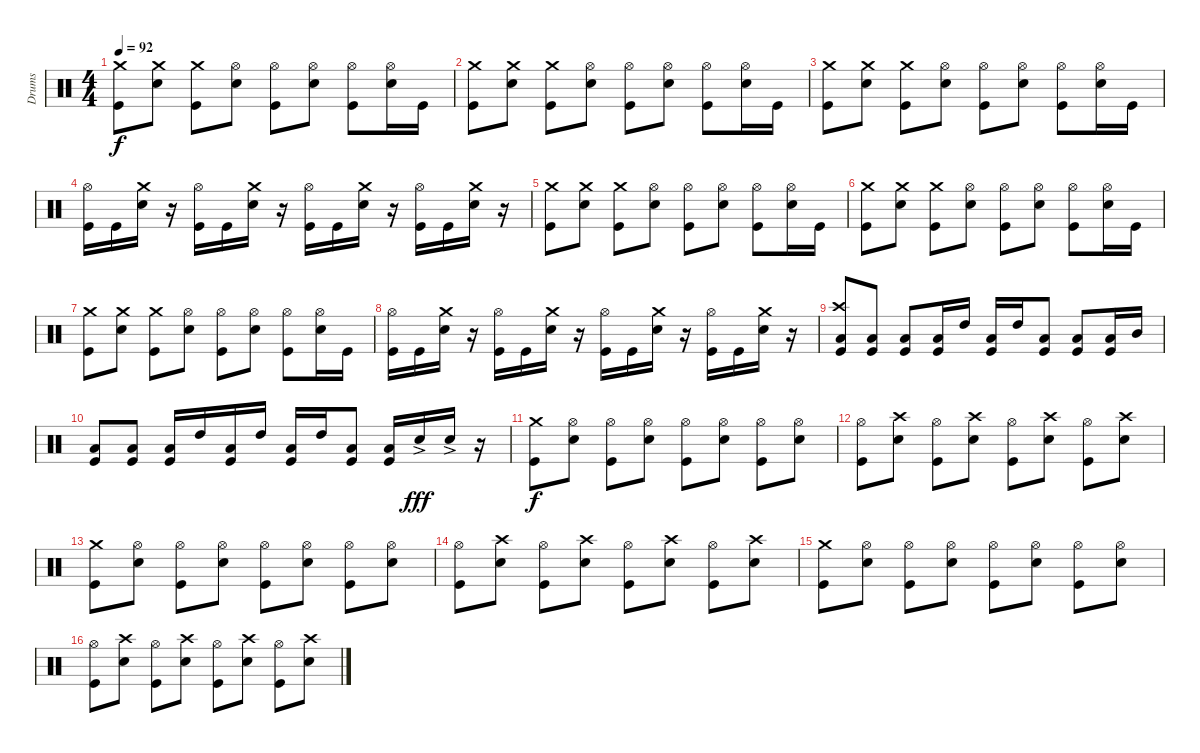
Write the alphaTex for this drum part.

\track ("Drums" "Drums") {instrument percussion}
\staff {score}
\articulation defaults
\ts (4 4)
\tempo 92
\clef neutral
\ks c
("Crash medium (hit)" "Kick (hit)").8{dy f} ("Crash medium (hit)" "Electric Snare (hit)").8 ("Crash medium (hit)" "Kick (hit)").8 ("Hi-Hat (open)" "Electric Snare (hit)").8 ("Hi-Hat (open)" "Kick (hit)").8 ("Hi-Hat (open)" "Electric Snare (hit)").8 ("Hi-Hat (open)" "Kick (hit)").8 ("Hi-Hat (open)" "Electric Snare (hit)").16 "Kick (hit)".16 |
("Crash medium (hit)" "Kick (hit)").8 ("Crash medium (hit)" "Electric Snare (hit)").8 ("Crash medium (hit)" "Kick (hit)").8 ("Hi-Hat (open)" "Electric Snare (hit)").8 ("Hi-Hat (open)" "Kick (hit)").8 ("Hi-Hat (open)" "Electric Snare (hit)").8 ("Hi-Hat (open)" "Kick (hit)").8 ("Hi-Hat (open)" "Electric Snare (hit)").16 "Kick (hit)".16 |
("Crash medium (hit)" "Kick (hit)").8 ("Crash medium (hit)" "Electric Snare (hit)").8 ("Crash medium (hit)" "Kick (hit)").8 ("Hi-Hat (open)" "Electric Snare (hit)").8 ("Hi-Hat (open)" "Kick (hit)").8 ("Hi-Hat (open)" "Electric Snare (hit)").8 ("Hi-Hat (open)" "Kick (hit)").8 ("Hi-Hat (open)" "Electric Snare (hit)").16 "Kick (hit)".16 |
("Hi-Hat (open)" "Kick (hit)").16 "Kick (hit)".16 ("Crash medium (hit)" "Electric Snare (hit)").16 r.16 ("Hi-Hat (open)" "Kick (hit)").16 "Kick (hit)".16 ("Crash medium (hit)" "Electric Snare (hit)").16 r.16 ("Hi-Hat (open)" "Kick (hit)").16 "Kick (hit)".16 ("Crash medium (hit)" "Electric Snare (hit)").16 r.16 ("Hi-Hat (open)" "Kick (hit)").16 "Kick (hit)".16 ("Crash medium (hit)" "Electric Snare (hit)").16 r.16 |
("Crash medium (hit)" "Kick (hit)").8 ("Crash medium (hit)" "Electric Snare (hit)").8 ("Crash medium (hit)" "Kick (hit)").8 ("Hi-Hat (open)" "Electric Snare (hit)").8 ("Hi-Hat (open)" "Kick (hit)").8 ("Hi-Hat (open)" "Electric Snare (hit)").8 ("Hi-Hat (open)" "Kick (hit)").8 ("Hi-Hat (open)" "Electric Snare (hit)").16 "Kick (hit)".16 |
("Crash medium (hit)" "Kick (hit)").8 ("Crash medium (hit)" "Electric Snare (hit)").8 ("Crash medium (hit)" "Kick (hit)").8 ("Hi-Hat (open)" "Electric Snare (hit)").8 ("Hi-Hat (open)" "Kick (hit)").8 ("Hi-Hat (open)" "Electric Snare (hit)").8 ("Hi-Hat (open)" "Kick (hit)").8 ("Hi-Hat (open)" "Electric Snare (hit)").16 "Kick (hit)".16 |
("Crash medium (hit)" "Kick (hit)").8 ("Crash medium (hit)" "Electric Snare (hit)").8 ("Crash medium (hit)" "Kick (hit)").8 ("Hi-Hat (open)" "Electric Snare (hit)").8 ("Hi-Hat (open)" "Kick (hit)").8 ("Hi-Hat (open)" "Electric Snare (hit)").8 ("Hi-Hat (open)" "Kick (hit)").8 ("Hi-Hat (open)" "Electric Snare (hit)").16 "Kick (hit)".16 |
("Hi-Hat (open)" "Kick (hit)").16 "Kick (hit)".16 ("Crash medium (hit)" "Electric Snare (hit)").16 r.16 ("Hi-Hat (open)" "Kick (hit)").16 "Kick (hit)".16 ("Crash medium (hit)" "Electric Snare (hit)").16 r.16 ("Hi-Hat (open)" "Kick (hit)").16 "Kick (hit)".16 ("Crash medium (hit)" "Electric Snare (hit)").16 r.16 ("Hi-Hat (open)" "Kick (hit)").16 "Kick (hit)".16 ("Crash medium (hit)" "Electric Snare (hit)").16 r.16 |
("Crash high (hit)" "Low Tom (hit)" "Kick (hit)").8 ("Low Tom (hit)" "Kick (hit)").8 ("Low Tom (hit)" "Kick (hit)").8 ("Low Tom (hit)" "Kick (hit)").16 "High Tom (hit)".16 ("Low Tom (hit)" "Kick (hit)").16 "High Tom (hit)".16 ("Low Tom (hit)" "Kick (hit)").8 ("Low Tom (hit)" "Kick (hit)").8 ("Low Tom (hit)" "Kick (hit)").16 "Mid Tom (hit)".16 |
("Low Tom (hit)" "Kick (hit)").8 ("Low Tom (hit)" "Kick (hit)").8 ("Low Tom (hit)" "Kick (hit)").16 "High Tom (hit)".16 ("Low Tom (hit)" "Kick (hit)").16 "High Tom (hit)".16 ("Low Tom (hit)" "Kick (hit)").16 "High Tom (hit)".16 ("Low Tom (hit)" "Kick (hit)").8 ("Low Tom (hit)" "Kick (hit)").16 "Electric Snare (hit)"{ac}.16{dy fff} "Electric Snare (hit)"{ac}.16 r.16 |
("Crash medium (hit)" "Kick (hit)").8{dy f} ("Hi-Hat (open)" "Electric Snare (hit)").8 ("Hi-Hat (open)" "Kick (hit)").8 ("Hi-Hat (open)" "Electric Snare (hit)").8 ("Hi-Hat (open)" "Kick (hit)").8 ("Hi-Hat (open)" "Electric Snare (hit)").8 ("Hi-Hat (open)" "Kick (hit)").8 ("Hi-Hat (open)" "Electric Snare (hit)").8 |
("Hi-Hat (open)" "Kick (hit)").8 ("Crash high (hit)" "Electric Snare (hit)").8 ("Hi-Hat (open)" "Kick (hit)").8 ("Crash high (hit)" "Electric Snare (hit)").8 ("Hi-Hat (open)" "Kick (hit)").8 ("Crash high (hit)" "Electric Snare (hit)").8 ("Hi-Hat (open)" "Kick (hit)").8 ("Crash high (hit)" "Electric Snare (hit)").8 |
("Crash medium (hit)" "Kick (hit)").8 ("Hi-Hat (open)" "Electric Snare (hit)").8 ("Hi-Hat (open)" "Kick (hit)").8 ("Hi-Hat (open)" "Electric Snare (hit)").8 ("Hi-Hat (open)" "Kick (hit)").8 ("Hi-Hat (open)" "Electric Snare (hit)").8 ("Hi-Hat (open)" "Kick (hit)").8 ("Hi-Hat (open)" "Electric Snare (hit)").8 |
("Hi-Hat (open)" "Kick (hit)").8 ("Crash high (hit)" "Electric Snare (hit)").8 ("Hi-Hat (open)" "Kick (hit)").8 ("Crash high (hit)" "Electric Snare (hit)").8 ("Hi-Hat (open)" "Kick (hit)").8 ("Crash high (hit)" "Electric Snare (hit)").8 ("Hi-Hat (open)" "Kick (hit)").8 ("Crash high (hit)" "Electric Snare (hit)").8 |
("Crash medium (hit)" "Kick (hit)").8 ("Hi-Hat (open)" "Electric Snare (hit)").8 ("Hi-Hat (open)" "Kick (hit)").8 ("Hi-Hat (open)" "Electric Snare (hit)").8 ("Hi-Hat (open)" "Kick (hit)").8 ("Hi-Hat (open)" "Electric Snare (hit)").8 ("Hi-Hat (open)" "Kick (hit)").8 ("Hi-Hat (open)" "Electric Snare (hit)").8 |
("Hi-Hat (open)" "Kick (hit)").8 ("Crash high (hit)" "Electric Snare (hit)").8 ("Hi-Hat (open)" "Kick (hit)").8 ("Crash high (hit)" "Electric Snare (hit)").8 ("Hi-Hat (open)" "Kick (hit)").8 ("Crash high (hit)" "Electric Snare (hit)").8 ("Hi-Hat (open)" "Kick (hit)").8 ("Crash high (hit)" "Electric Snare (hit)").8
